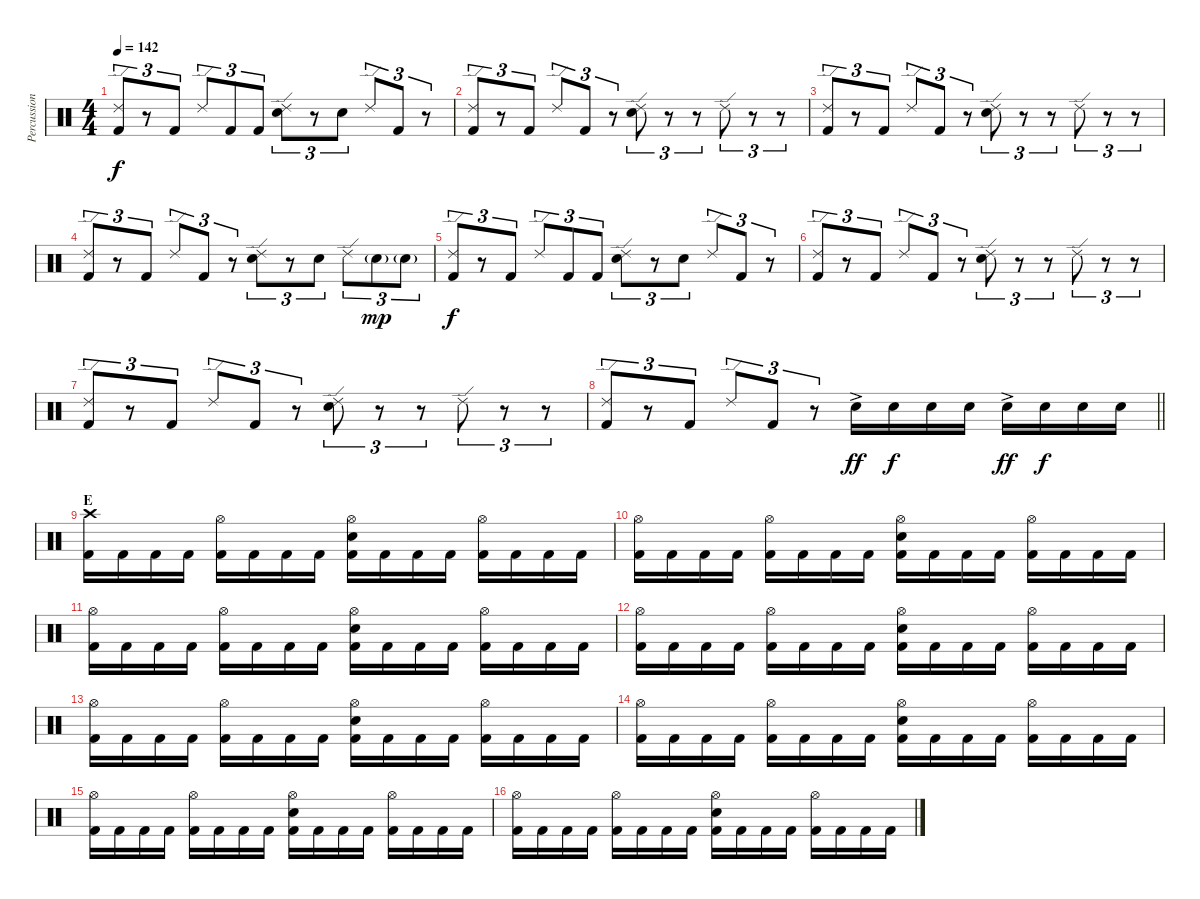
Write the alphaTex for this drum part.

\track ("Percussion" "Percussion") {instrument percussion}
\staff {score}
\articulation defaults
\ts (4 4)
\tempo 142
\clef neutral
\ks c
("Ride (edge) 2" "Kick (hit) 2").8{tu (3 2) dy f} r.8{tu (3 2)} "Kick (hit) 2".8{tu (3 2)} "Ride (edge) 2".8{tu (3 2)} "Kick (hit) 2".8{tu (3 2)} "Kick (hit) 2".8{tu (3 2)} ("Ride (edge) 2" "Electric Snare (hit)").8{tu (3 2)} r.8{tu (3 2)} "Electric Snare (hit)".8{tu (3 2)} "Ride (edge) 2".8{tu (3 2)} "Kick (hit) 2".8{tu (3 2)} r.8{tu (3 2)} |
("Ride (edge) 2" "Kick (hit) 2").8{tu (3 2)} r.8{tu (3 2)} "Kick (hit) 2".8{tu (3 2)} "Ride (edge) 2".8{tu (3 2)} "Kick (hit) 2".8{tu (3 2)} r.8{tu (3 2)} ("Ride (edge) 2" "Electric Snare (hit)").8{tu (3 2)} r.8{tu (3 2)} r.8{tu (3 2)} "Ride (edge) 2".8{tu (3 2)} r.8{tu (3 2)} r.8{tu (3 2)} |
("Ride (edge) 2" "Kick (hit) 2").8{tu (3 2)} r.8{tu (3 2)} "Kick (hit) 2".8{tu (3 2)} "Ride (edge) 2".8{tu (3 2)} "Kick (hit) 2".8{tu (3 2)} r.8{tu (3 2)} ("Ride (edge) 2" "Electric Snare (hit)").8{tu (3 2)} r.8{tu (3 2)} r.8{tu (3 2)} "Ride (edge) 2".8{tu (3 2)} r.8{tu (3 2)} r.8{tu (3 2)} |
("Ride (edge) 2" "Kick (hit) 2").8{tu (3 2)} r.8{tu (3 2)} "Kick (hit) 2".8{tu (3 2)} "Ride (edge) 2".8{tu (3 2)} "Kick (hit) 2".8{tu (3 2)} r.8{tu (3 2)} ("Ride (edge) 2" "Electric Snare (hit)").8{tu (3 2)} r.8{tu (3 2)} "Electric Snare (hit)".8{tu (3 2)} "Ride (edge) 2".8{tu (3 2)} "Electric Snare (hit)"{g}.8{tu (3 2) dy mp} "Electric Snare (hit)"{g}.8{tu (3 2)} |
("Ride (edge) 2" "Kick (hit) 2").8{tu (3 2) dy f} r.8{tu (3 2)} "Kick (hit) 2".8{tu (3 2)} "Ride (edge) 2".8{tu (3 2)} "Kick (hit) 2".8{tu (3 2)} "Kick (hit) 2".8{tu (3 2)} ("Ride (edge) 2" "Electric Snare (hit)").8{tu (3 2)} r.8{tu (3 2)} "Electric Snare (hit)".8{tu (3 2)} "Ride (edge) 2".8{tu (3 2)} "Kick (hit) 2".8{tu (3 2)} r.8{tu (3 2)} |
("Ride (edge) 2" "Kick (hit) 2").8{tu (3 2)} r.8{tu (3 2)} "Kick (hit) 2".8{tu (3 2)} "Ride (edge) 2".8{tu (3 2)} "Kick (hit) 2".8{tu (3 2)} r.8{tu (3 2)} ("Ride (edge) 2" "Electric Snare (hit)").8{tu (3 2)} r.8{tu (3 2)} r.8{tu (3 2)} "Ride (edge) 2".8{tu (3 2)} r.8{tu (3 2)} r.8{tu (3 2)} |
("Ride (edge) 2" "Kick (hit) 2").8{tu (3 2)} r.8{tu (3 2)} "Kick (hit) 2".8{tu (3 2)} "Ride (edge) 2".8{tu (3 2)} "Kick (hit) 2".8{tu (3 2)} r.8{tu (3 2)} ("Ride (edge) 2" "Electric Snare (hit)").8{tu (3 2)} r.8{tu (3 2)} r.8{tu (3 2)} "Ride (edge) 2".8{tu (3 2)} r.8{tu (3 2)} r.8{tu (3 2)} |
\barLineRight lightlight
("Ride (edge) 2" "Kick (hit) 2").8{tu (3 2)} r.8{tu (3 2)} "Kick (hit) 2".8{tu (3 2)} "Ride (edge) 2".8{tu (3 2)} "Kick (hit) 2".8{tu (3 2)} r.8{tu (3 2)} "Electric Snare (hit)"{ac}.16{dy ff} "Electric Snare (hit)".16{dy f} "Electric Snare (hit)".16 "Electric Snare (hit)".16 "Electric Snare (hit)"{ac}.16{dy ff} "Electric Snare (hit)".16{dy f} "Electric Snare (hit)".16 "Electric Snare (hit)".16 |
\section ("" "E")
("Crash high (hit)" "Kick (hit) 2").16 "Kick (hit) 2".16 "Kick (hit) 2".16 "Kick (hit) 2".16 ("Hi-Hat (open)" "Kick (hit) 2").16 "Kick (hit) 2".16 "Kick (hit) 2".16 "Kick (hit) 2".16 ("Hi-Hat (open)" "Electric Snare (hit)" "Kick (hit) 2").16 "Kick (hit) 2".16 "Kick (hit) 2".16 "Kick (hit) 2".16 ("Hi-Hat (open)" "Kick (hit) 2").16 "Kick (hit) 2".16 "Kick (hit) 2".16 "Kick (hit) 2".16 |
("Hi-Hat (open)" "Kick (hit) 2").16 "Kick (hit) 2".16 "Kick (hit) 2".16 "Kick (hit) 2".16 ("Hi-Hat (open)" "Kick (hit) 2").16 "Kick (hit) 2".16 "Kick (hit) 2".16 "Kick (hit) 2".16 ("Hi-Hat (open)" "Electric Snare (hit)" "Kick (hit) 2").16 "Kick (hit) 2".16 "Kick (hit) 2".16 "Kick (hit) 2".16 ("Hi-Hat (open)" "Kick (hit) 2").16 "Kick (hit) 2".16 "Kick (hit) 2".16 "Kick (hit) 2".16 |
("Hi-Hat (open)" "Kick (hit) 2").16 "Kick (hit) 2".16 "Kick (hit) 2".16 "Kick (hit) 2".16 ("Hi-Hat (open)" "Kick (hit) 2").16 "Kick (hit) 2".16 "Kick (hit) 2".16 "Kick (hit) 2".16 ("Hi-Hat (open)" "Electric Snare (hit)" "Kick (hit) 2").16 "Kick (hit) 2".16 "Kick (hit) 2".16 "Kick (hit) 2".16 ("Hi-Hat (open)" "Kick (hit) 2").16 "Kick (hit) 2".16 "Kick (hit) 2".16 "Kick (hit) 2".16 |
("Hi-Hat (open)" "Kick (hit) 2").16 "Kick (hit) 2".16 "Kick (hit) 2".16 "Kick (hit) 2".16 ("Hi-Hat (open)" "Kick (hit) 2").16 "Kick (hit) 2".16 "Kick (hit) 2".16 "Kick (hit) 2".16 ("Hi-Hat (open)" "Electric Snare (hit)" "Kick (hit) 2").16 "Kick (hit) 2".16 "Kick (hit) 2".16 "Kick (hit) 2".16 ("Hi-Hat (open)" "Kick (hit) 2").16 "Kick (hit) 2".16 "Kick (hit) 2".16 "Kick (hit) 2".16 |
("Hi-Hat (open)" "Kick (hit) 2").16 "Kick (hit) 2".16 "Kick (hit) 2".16 "Kick (hit) 2".16 ("Hi-Hat (open)" "Kick (hit) 2").16 "Kick (hit) 2".16 "Kick (hit) 2".16 "Kick (hit) 2".16 ("Hi-Hat (open)" "Electric Snare (hit)" "Kick (hit) 2").16 "Kick (hit) 2".16 "Kick (hit) 2".16 "Kick (hit) 2".16 ("Hi-Hat (open)" "Kick (hit) 2").16 "Kick (hit) 2".16 "Kick (hit) 2".16 "Kick (hit) 2".16 |
("Hi-Hat (open)" "Kick (hit) 2").16 "Kick (hit) 2".16 "Kick (hit) 2".16 "Kick (hit) 2".16 ("Hi-Hat (open)" "Kick (hit) 2").16 "Kick (hit) 2".16 "Kick (hit) 2".16 "Kick (hit) 2".16 ("Hi-Hat (open)" "Electric Snare (hit)" "Kick (hit) 2").16 "Kick (hit) 2".16 "Kick (hit) 2".16 "Kick (hit) 2".16 ("Hi-Hat (open)" "Kick (hit) 2").16 "Kick (hit) 2".16 "Kick (hit) 2".16 "Kick (hit) 2".16 |
("Hi-Hat (open)" "Kick (hit) 2").16 "Kick (hit) 2".16 "Kick (hit) 2".16 "Kick (hit) 2".16 ("Hi-Hat (open)" "Kick (hit) 2").16 "Kick (hit) 2".16 "Kick (hit) 2".16 "Kick (hit) 2".16 ("Hi-Hat (open)" "Electric Snare (hit)" "Kick (hit) 2").16 "Kick (hit) 2".16 "Kick (hit) 2".16 "Kick (hit) 2".16 ("Hi-Hat (open)" "Kick (hit) 2").16 "Kick (hit) 2".16 "Kick (hit) 2".16 "Kick (hit) 2".16 |
("Hi-Hat (open)" "Kick (hit) 2").16 "Kick (hit) 2".16 "Kick (hit) 2".16 "Kick (hit) 2".16 ("Hi-Hat (open)" "Kick (hit) 2").16 "Kick (hit) 2".16 "Kick (hit) 2".16 "Kick (hit) 2".16 ("Hi-Hat (open)" "Electric Snare (hit)" "Kick (hit) 2").16 "Kick (hit) 2".16 "Kick (hit) 2".16 "Kick (hit) 2".16 ("Hi-Hat (open)" "Kick (hit) 2").16 "Kick (hit) 2".16 "Kick (hit) 2".16 "Kick (hit) 2".16
